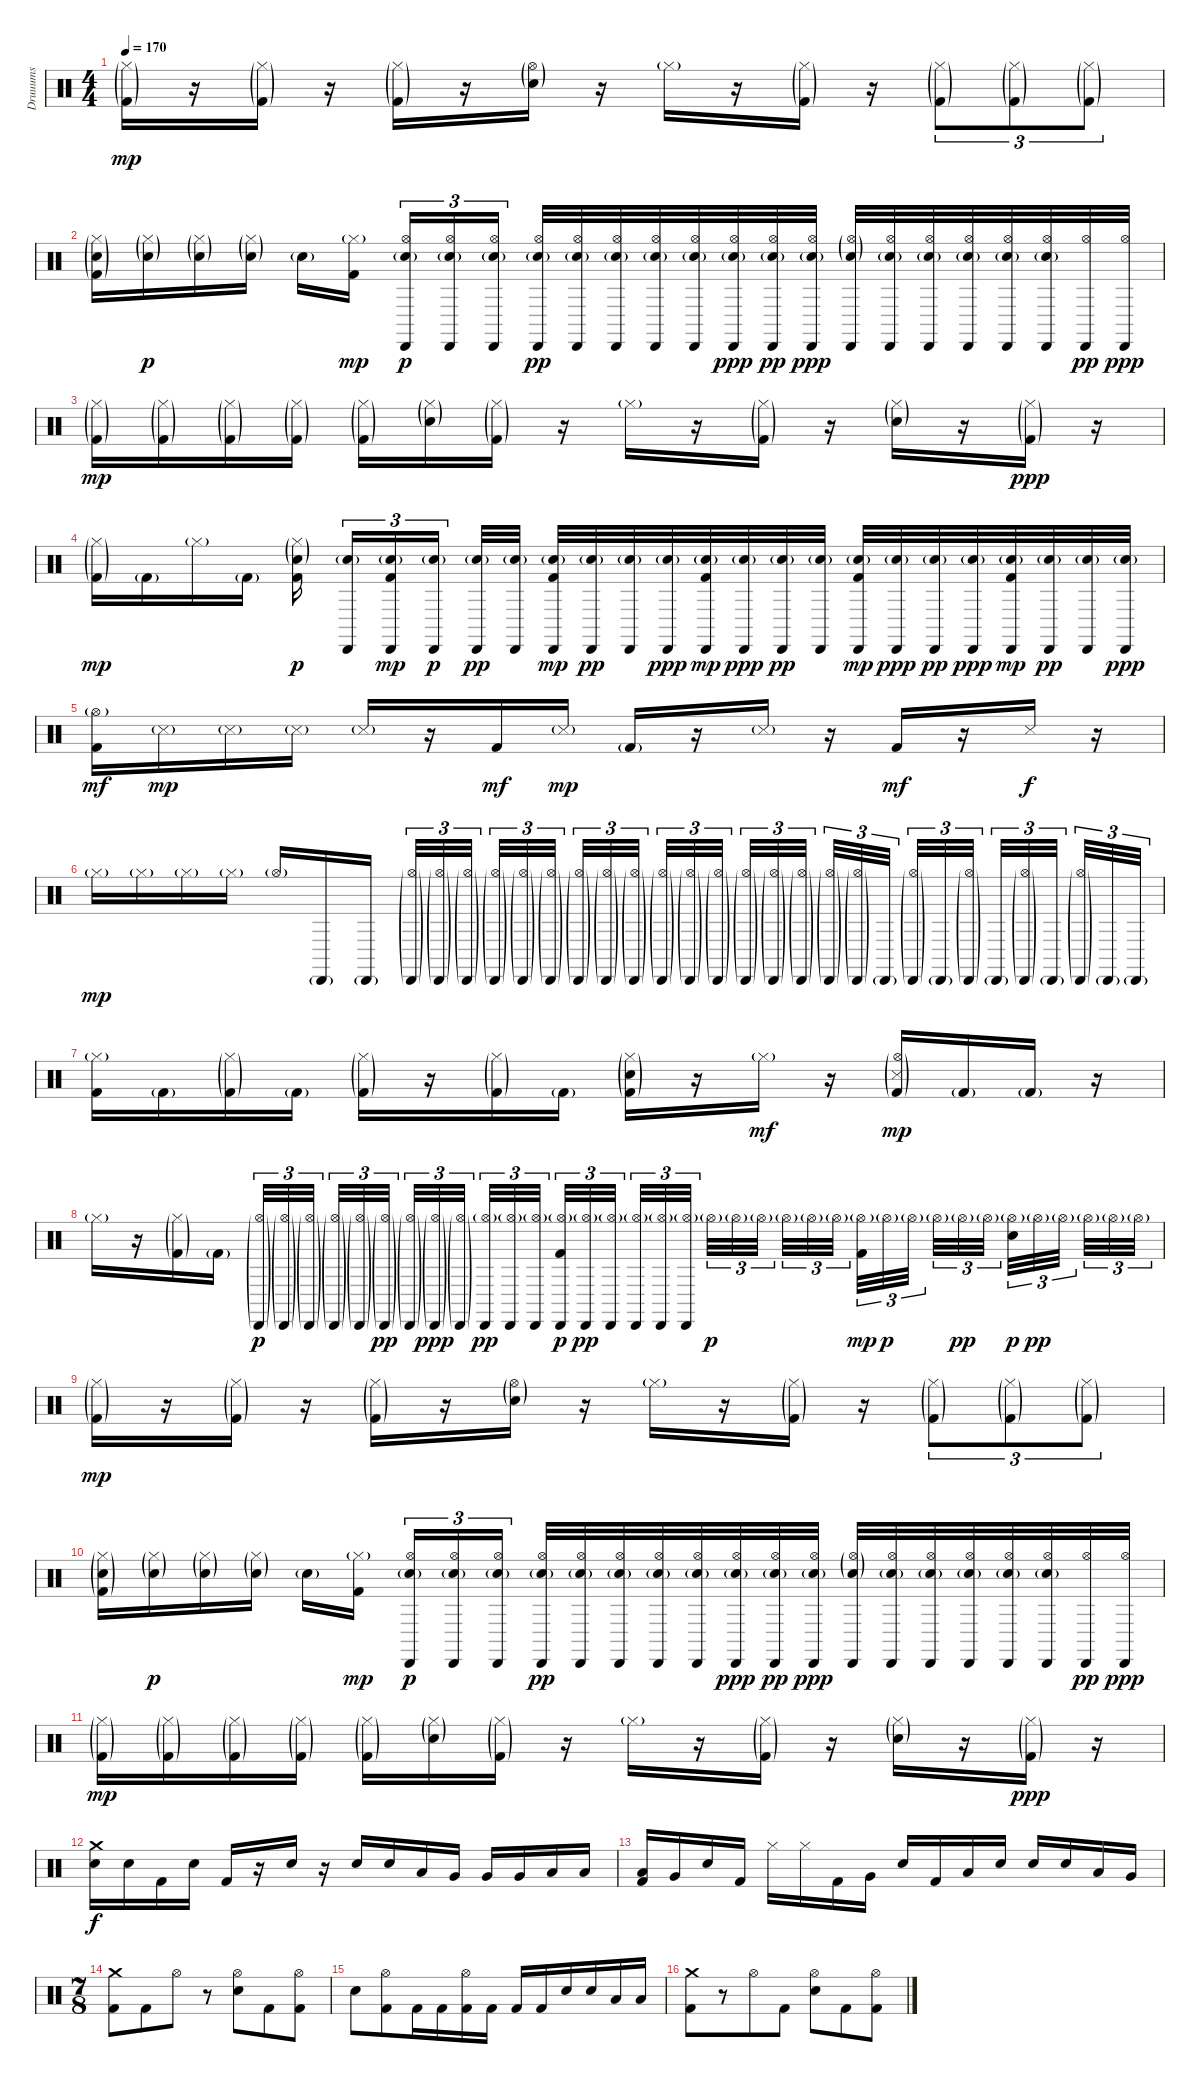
\track ("Druuums" "Druuums") {instrument percussion}
\staff {score}
\articulation defaults
\ts (4 4)
\tempo 170
\clef neutral
\ks c
("Hi-Hat (closed)"{g} "Kick (hit) 2"{g}).16{dy mp} r.16 ("Hi-Hat (closed)"{g} "Kick (hit) 2"{g}).16 r.16 ("Hi-Hat (closed)"{g} "Kick (hit) 2"{g}).16 r.16 ("Hi-Hat (open)"{g} "Electric Snare (hit)"{g}).16 r.16 "Hi-Hat (closed)"{g}.16 r.16 ("Hi-Hat (closed)"{g} "Kick (hit) 2"{g}).16 r.16 ("Hi-Hat (closed)"{g} "Kick (hit) 2"{g}).8{tu (3 2)} ("Hi-Hat (closed)"{g} "Kick (hit) 2"{g}).8{tu (3 2)} ("Hi-Hat (closed)"{g} "Kick (hit) 2"{g}).8{tu (3 2)} |
("Hi-Hat (closed)"{g} "Electric Snare (hit)"{g} "Kick (hit) 2"{g}).16 ("Hi-Hat (closed)"{g} "Electric Snare (hit)"{g}).16{dy p} ("Hi-Hat (closed)"{g} "Electric Snare (hit)"{g}).16 ("Hi-Hat (closed)"{g} "Electric Snare (hit)"{g}).16 "Electric Snare (hit)"{g}.16 ("Hi-Hat (closed)"{g} "Kick (hit) 2").16{dy mp beam splitsecondary} ("Hi-Hat (open)" "Cabasa (hit)" "Electric Snare (hit)"{g}).16{tu (3 2) dy p} ("Hi-Hat (open)" "Cabasa (hit)" "Electric Snare (hit)"{g}).16{tu (3 2)} ("Hi-Hat (open)" "Cabasa (hit)" "Electric Snare (hit)"{g}).16{tu (3 2)} ("Hi-Hat (open)" "Cabasa (hit)" "Electric Snare (hit)"{g}).32{dy pp} ("Hi-Hat (open)" "Cabasa (hit)" "Electric Snare (hit)"{g}).32 ("Hi-Hat (open)" "Cabasa (hit)" "Electric Snare (hit)"{g}).32 ("Hi-Hat (open)" "Cabasa (hit)" "Electric Snare (hit)"{g}).32 ("Hi-Hat (open)" "Cabasa (hit)" "Electric Snare (hit)"{g}).32 ("Hi-Hat (open)" "Cabasa (hit)" "Electric Snare (hit)"{g}).32{dy ppp} ("Hi-Hat (open)" "Cabasa (hit)" "Electric Snare (hit)"{g}).32{dy pp} ("Hi-Hat (open)" "Cabasa (hit)" "Electric Snare (hit)"{g}).32{dy ppp} ("Hi-Hat (open)"{g} "Cabasa (hit)" "Electric Snare (hit)"{g}).32 ("Hi-Hat (open)" "Cabasa (hit)" "Electric Snare (hit)"{g}).32 ("Hi-Hat (open)" "Cabasa (hit)" "Electric Snare (hit)"{g}).32 ("Hi-Hat (open)" "Cabasa (hit)" "Electric Snare (hit)"{g}).32 ("Hi-Hat (open)" "Cabasa (hit)" "Electric Snare (hit)"{g}).32 ("Hi-Hat (open)" "Cabasa (hit)" "Electric Snare (hit)"{g}).32 ("Hi-Hat (open)" "Cabasa (hit)").32{dy pp} ("Hi-Hat (open)" "Cabasa (hit)").32{dy ppp} |
("Hi-Hat (closed)"{g} "Kick (hit) 2"{g}).16{dy mp} ("Hi-Hat (closed)"{g} "Kick (hit) 2"{g}).16 ("Hi-Hat (closed)"{g} "Kick (hit) 2"{g}).16 ("Hi-Hat (closed)"{g} "Kick (hit) 2"{g}).16 ("Hi-Hat (closed)"{g} "Kick (hit) 2"{g}).16 ("Hi-Hat (closed)"{g} "Electric Snare (hit)"{g}).16 ("Hi-Hat (closed)"{g} "Kick (hit) 2"{g}).16 r.16 "Hi-Hat (closed)"{g}.16 r.16 ("Hi-Hat (closed)"{g} "Kick (hit) 2"{g}).16 r.16 ("Hi-Hat (closed)"{g} "Electric Snare (hit)"{g}).16 r.16 ("Hi-Hat (closed)"{g} "Kick (hit) 2"{g}).16{dy ppp} r.16 |
("Hi-Hat (closed)"{g} "Kick (hit) 2"{g}).16{dy mp} "Kick (hit) 2"{g}.16 "Hi-Hat (closed)"{g}.16 "Kick (hit) 2"{g}.16 ("Hi-Hat (closed)"{g} "Electric Snare (hit)"{g} "Kick (hit) 2").16{dy p beam splitsecondary} ("Cabasa (hit)" "Electric Snare (hit)"{g}).16{tu (3 2)} ("Cabasa (hit)" "Electric Snare (hit)"{g} "Kick (hit) 2").16{tu (3 2) dy mp} ("Cabasa (hit)" "Electric Snare (hit)"{g}).16{tu (3 2) dy p beam splitsecondary} ("Cabasa (hit)" "Electric Snare (hit)"{g}).32{dy pp} ("Cabasa (hit)" "Electric Snare (hit)"{g}).32 ("Cabasa (hit)" "Electric Snare (hit)"{g} "Kick (hit) 2").32{dy mp} ("Cabasa (hit)" "Electric Snare (hit)"{g}).32{dy pp} ("Cabasa (hit)" "Electric Snare (hit)"{g}).32 ("Cabasa (hit)" "Electric Snare (hit)"{g}).32{dy ppp} ("Cabasa (hit)" "Electric Snare (hit)"{g} "Kick (hit) 2").32{dy mp} ("Cabasa (hit)" "Electric Snare (hit)"{g}).32{dy ppp} ("Cabasa (hit)" "Electric Snare (hit)"{g}).32{dy pp} ("Cabasa (hit)" "Electric Snare (hit)"{g}).32 ("Cabasa (hit)" "Electric Snare (hit)"{g} "Kick (hit) 2").32{dy mp} ("Cabasa (hit)" "Electric Snare (hit)"{g}).32{dy ppp} ("Cabasa (hit)" "Electric Snare (hit)"{g}).32{dy pp} ("Cabasa (hit)" "Electric Snare (hit)"{g}).32{dy ppp} ("Cabasa (hit)" "Electric Snare (hit)"{g} "Kick (hit) 2").32{dy mp} ("Cabasa (hit)" "Electric Snare (hit)"{g}).32{dy pp} ("Cabasa (hit)" "Electric Snare (hit)"{g}).32 ("Cabasa (hit)" "Electric Snare (hit)"{g}).32{dy ppp} |
("Hi-Hat (open)"{g} "Kick (hit) 2").16{dy mf} "Snare (side stick) 3"{g}.16{dy mp} "Snare (side stick) 3"{g}.16 "Snare (side stick) 3"{g}.16 "Snare (side stick) 3"{g}.16 r.16 "Kick (hit) 2".16{dy mf} "Snare (side stick) 3"{g}.16{dy mp} "Kick (hit) 2"{g}.16 r.16 "Snare (side stick) 3"{g}.16 r.16 "Kick (hit) 2".16{dy mf} r.16 "Snare (side stick) 3".16{dy f} r.16 |
"Hi-Hat (closed)"{g}.16{dy mp} "Hi-Hat (closed)"{g}.16 "Hi-Hat (closed)"{g}.16 "Hi-Hat (closed)"{g}.16 "Hi-Hat (open)"{g}.16 "Cabasa (hit)"{g}.16 "Cabasa (hit)"{g}.16{beam splitsecondary} ("Hi-Hat (open)"{g} "Cabasa (hit)"{g}).32{tu (3 2)} ("Hi-Hat (open)"{g} "Cabasa (hit)"{g}).32{tu (3 2)} ("Hi-Hat (open)"{g} "Cabasa (hit)"{g}).32{tu (3 2)} ("Hi-Hat (open)"{g} "Cabasa (hit)"{g}).32{tu (3 2)} ("Hi-Hat (open)"{g} "Cabasa (hit)"{g}).32{tu (3 2)} ("Hi-Hat (open)"{g} "Cabasa (hit)"{g}).32{tu (3 2) beam splitsecondary} ("Hi-Hat (open)"{g} "Cabasa (hit)"{g}).32{tu (3 2)} ("Hi-Hat (open)"{g} "Cabasa (hit)"{g}).32{tu (3 2)} ("Hi-Hat (open)"{g} "Cabasa (hit)"{g}).32{tu (3 2) beam splitsecondary} ("Hi-Hat (open)"{g} "Cabasa (hit)"{g}).32{tu (3 2)} ("Hi-Hat (open)"{g} "Cabasa (hit)"{g}).32{tu (3 2)} ("Hi-Hat (open)"{g} "Cabasa (hit)"{g}).32{tu (3 2) beam splitsecondary} ("Hi-Hat (open)"{g} "Cabasa (hit)"{g}).32{tu (3 2)} ("Hi-Hat (open)"{g} "Cabasa (hit)"{g}).32{tu (3 2)} ("Hi-Hat (open)"{g} "Cabasa (hit)"{g}).32{tu (3 2)} ("Hi-Hat (open)"{g} "Cabasa (hit)"{g}).32{tu (3 2)} ("Hi-Hat (open)"{g} "Cabasa (hit)"{g}).32{tu (3 2)} "Cabasa (hit)"{g}.32{tu (3 2) beam splitsecondary} ("Hi-Hat (open)"{g} "Cabasa (hit)"{g}).32{tu (3 2)} "Cabasa (hit)"{g}.32{tu (3 2)} ("Hi-Hat (open)"{g} "Cabasa (hit)"{g}).32{tu (3 2) beam splitsecondary} "Cabasa (hit)"{g}.32{tu (3 2)} ("Hi-Hat (open)"{g} "Cabasa (hit)"{g}).32{tu (3 2)} "Cabasa (hit)"{g}.32{tu (3 2) beam splitsecondary} ("Hi-Hat (open)"{g} "Cabasa (hit)"{g}).32{tu (3 2)} "Cabasa (hit)"{g}.32{tu (3 2)} "Cabasa (hit)"{g}.32{tu (3 2)} |
("Hi-Hat (closed)"{g} "Kick (hit) 2").16 "Kick (hit) 2"{g}.16 ("Hi-Hat (closed)"{g} "Kick (hit) 2"{g}).16 "Kick (hit) 2"{g}.16 ("Hi-Hat (closed)"{g} "Kick (hit) 2"{g}).16 r.16 ("Hi-Hat (closed)"{g} "Kick (hit) 2"{g}).16 "Kick (hit) 2"{g}.16 ("Hi-Hat (closed)"{g} "Electric Snare (hit)"{g} "Kick (hit) 2"{g}).16 r.16 "Hi-Hat (closed)"{g}.16{dy mf} r.16 ("Hi-Hat (open)"{g} "Snare (side stick) 3"{g} "Kick (hit) 2"{g}).16{dy mp} "Kick (hit) 2"{g}.16 "Kick (hit) 2"{g}.16 r.16 |
"Hi-Hat (closed)"{g}.16 r.16 ("Hi-Hat (closed)"{g} "Kick (hit) 2"{g}).16 "Kick (hit) 2"{g}.16 ("Hi-Hat (open)"{g} "Cabasa (hit)"{g}).32{tu (3 2) dy p} ("Hi-Hat (open)"{g} "Cabasa (hit)"{g}).32{tu (3 2)} ("Hi-Hat (open)"{g} "Cabasa (hit)"{g}).32{tu (3 2) beam splitsecondary} ("Hi-Hat (open)"{g} "Cabasa (hit)"{g}).32{tu (3 2)} ("Hi-Hat (open)"{g} "Cabasa (hit)"{g}).32{tu (3 2)} ("Hi-Hat (open)"{g} "Cabasa (hit)"{g}).32{tu (3 2) dy pp beam splitsecondary} ("Hi-Hat (open)"{g} "Cabasa (hit)"{g}).32{tu (3 2)} ("Hi-Hat (open)"{g} "Cabasa (hit)"{g}).32{tu (3 2) dy ppp} ("Hi-Hat (open)"{g} "Cabasa (hit)"{g}).32{tu (3 2) beam splitsecondary} ("Hi-Hat (open)"{g} "Cabasa (hit)").32{tu (3 2) dy pp} ("Hi-Hat (open)"{g} "Cabasa (hit)").32{tu (3 2)} ("Hi-Hat (open)"{g} "Cabasa (hit)").32{tu (3 2)} ("Hi-Hat (open)"{g} "Cabasa (hit)" "Kick (hit) 2").32{tu (3 2) dy p} ("Hi-Hat (open)"{g} "Cabasa (hit)").32{tu (3 2) dy pp} ("Hi-Hat (open)"{g} "Cabasa (hit)").32{tu (3 2) beam splitsecondary} ("Hi-Hat (open)"{g} "Cabasa (hit)").32{tu (3 2)} ("Hi-Hat (open)"{g} "Cabasa (hit)").32{tu (3 2)} ("Hi-Hat (open)"{g} "Cabasa (hit)").32{tu (3 2) beam splitsecondary} "Hi-Hat (open)"{g}.32{tu (3 2) dy p} "Hi-Hat (open)"{g}.32{tu (3 2)} "Hi-Hat (open)"{g}.32{tu (3 2) beam splitsecondary} "Hi-Hat (open)"{g}.32{tu (3 2)} "Hi-Hat (open)"{g}.32{tu (3 2)} "Hi-Hat (open)"{g}.32{tu (3 2)} ("Hi-Hat (open)"{g} "Kick (hit) 2").32{tu (3 2) dy mp} "Hi-Hat (open)"{g}.32{tu (3 2) dy p} "Hi-Hat (open)"{g}.32{tu (3 2) beam splitsecondary} "Hi-Hat (open)"{g}.32{tu (3 2)} "Hi-Hat (open)"{g}.32{tu (3 2) dy pp} "Hi-Hat (open)"{g}.32{tu (3 2) beam splitsecondary} ("Hi-Hat (open)"{g} "Electric Snare (hit)").32{tu (3 2) dy p} "Hi-Hat (open)"{g}.32{tu (3 2) dy pp} "Hi-Hat (open)"{g}.32{tu (3 2) beam splitsecondary} "Hi-Hat (open)"{g}.32{tu (3 2)} "Hi-Hat (open)"{g}.32{tu (3 2)} "Hi-Hat (open)"{g}.32{tu (3 2)} |
("Hi-Hat (closed)"{g} "Kick (hit) 2"{g}).16{dy mp} r.16 ("Hi-Hat (closed)"{g} "Kick (hit) 2"{g}).16 r.16 ("Hi-Hat (closed)"{g} "Kick (hit) 2"{g}).16 r.16 ("Hi-Hat (open)"{g} "Electric Snare (hit)"{g}).16 r.16 "Hi-Hat (closed)"{g}.16 r.16 ("Hi-Hat (closed)"{g} "Kick (hit) 2"{g}).16 r.16 ("Hi-Hat (closed)"{g} "Kick (hit) 2"{g}).8{tu (3 2)} ("Hi-Hat (closed)"{g} "Kick (hit) 2"{g}).8{tu (3 2)} ("Hi-Hat (closed)"{g} "Kick (hit) 2"{g}).8{tu (3 2)} |
("Hi-Hat (closed)"{g} "Electric Snare (hit)"{g} "Kick (hit) 2"{g}).16 ("Hi-Hat (closed)"{g} "Electric Snare (hit)"{g}).16{dy p} ("Hi-Hat (closed)"{g} "Electric Snare (hit)"{g}).16 ("Hi-Hat (closed)"{g} "Electric Snare (hit)"{g}).16 "Electric Snare (hit)"{g}.16 ("Hi-Hat (closed)"{g} "Kick (hit) 2").16{dy mp beam splitsecondary} ("Hi-Hat (open)" "Cabasa (hit)" "Electric Snare (hit)"{g}).16{tu (3 2) dy p} ("Hi-Hat (open)" "Cabasa (hit)" "Electric Snare (hit)"{g}).16{tu (3 2)} ("Hi-Hat (open)" "Cabasa (hit)" "Electric Snare (hit)"{g}).16{tu (3 2)} ("Hi-Hat (open)" "Cabasa (hit)" "Electric Snare (hit)"{g}).32{dy pp} ("Hi-Hat (open)" "Cabasa (hit)" "Electric Snare (hit)"{g}).32 ("Hi-Hat (open)" "Cabasa (hit)" "Electric Snare (hit)"{g}).32 ("Hi-Hat (open)" "Cabasa (hit)" "Electric Snare (hit)"{g}).32 ("Hi-Hat (open)" "Cabasa (hit)" "Electric Snare (hit)"{g}).32 ("Hi-Hat (open)" "Cabasa (hit)" "Electric Snare (hit)"{g}).32{dy ppp} ("Hi-Hat (open)" "Cabasa (hit)" "Electric Snare (hit)"{g}).32{dy pp} ("Hi-Hat (open)" "Cabasa (hit)" "Electric Snare (hit)"{g}).32{dy ppp} ("Hi-Hat (open)"{g} "Cabasa (hit)" "Electric Snare (hit)"{g}).32 ("Hi-Hat (open)" "Cabasa (hit)" "Electric Snare (hit)"{g}).32 ("Hi-Hat (open)" "Cabasa (hit)" "Electric Snare (hit)"{g}).32 ("Hi-Hat (open)" "Cabasa (hit)" "Electric Snare (hit)"{g}).32 ("Hi-Hat (open)" "Cabasa (hit)" "Electric Snare (hit)"{g}).32 ("Hi-Hat (open)" "Cabasa (hit)" "Electric Snare (hit)"{g}).32 ("Hi-Hat (open)" "Cabasa (hit)").32{dy pp} ("Hi-Hat (open)" "Cabasa (hit)").32{dy ppp} |
("Hi-Hat (closed)"{g} "Kick (hit) 2"{g}).16{dy mp} ("Hi-Hat (closed)"{g} "Kick (hit) 2"{g}).16 ("Hi-Hat (closed)"{g} "Kick (hit) 2"{g}).16 ("Hi-Hat (closed)"{g} "Kick (hit) 2"{g}).16 ("Hi-Hat (closed)"{g} "Kick (hit) 2"{g}).16 ("Hi-Hat (closed)"{g} "Electric Snare (hit)"{g}).16 ("Hi-Hat (closed)"{g} "Kick (hit) 2"{g}).16 r.16 "Hi-Hat (closed)"{g}.16 r.16 ("Hi-Hat (closed)"{g} "Kick (hit) 2"{g}).16 r.16 ("Hi-Hat (closed)"{g} "Electric Snare (hit)"{g}).16 r.16 ("Hi-Hat (closed)"{g} "Kick (hit) 2"{g}).16{dy ppp} r.16 |
("Crash medium (hit)" "Electric Snare (hit)").16{dy f} "Electric Snare (hit)".16 "Kick (hit) 2".16 "Electric Snare (hit)".16 "Kick (hit) 2".16 r.16 "Electric Snare (hit)".16 r.16 "Electric Snare (hit)".16 "Electric Snare (hit)".16 "Low Tom (hit)".16 "Very Low Tom (hit)".16 "Very Low Tom (hit)".16 "Very Low Tom (hit)".16 "Low Floor Tom (hit)".16 "Low Floor Tom (hit)".16 |
("Low Tom (hit)" "Kick (hit) 2").16 "Very Low Tom (hit)".16 "Electric Snare (hit)".16 "Kick (hit) 2".16 "Hi-Hat (closed)".16 "Hi-Hat (closed)".16 "Kick (hit) 2".16 "Very Low Tom (hit)".16 "Electric Snare (hit)".16 "Kick (hit) 2".16 "Low Tom (hit)".16 "Electric Snare (hit)".16 "Electric Snare (hit)".16 "Electric Snare (hit)".16 "Low Tom (hit)".16 "Very Low Tom (hit)".16 |
\ts (7 8)
("Crash medium (hit)" "Kick (hit) 2").8 "Kick (hit) 2".8 "Hi-Hat (open)".8 r.8 ("Hi-Hat (open)" "Electric Snare (hit)").8 "Kick (hit) 2".8 ("Hi-Hat (open)" "Kick (hit) 2").8 |
"Electric Snare (hit)".8 ("Hi-Hat (open)" "Kick (hit) 2").8 "Kick (hit) 2".16 "Kick (hit) 2".16 ("Hi-Hat (open)" "Kick (hit) 2").16 "Kick (hit) 2".16 "Kick (hit) 2".16 "Kick (hit) 2".16 "Electric Snare (hit)".16 "Electric Snare (hit)".16 "Low Tom (hit)".16 "Low Tom (hit)".16 |
("Crash medium (hit)" "Kick (hit) 2").8 r.8 "Hi-Hat (open)".8 "Kick (hit) 2".8 ("Hi-Hat (open)" "Electric Snare (hit)").8 "Kick (hit) 2".8 ("Hi-Hat (open)" "Kick (hit) 2").8
